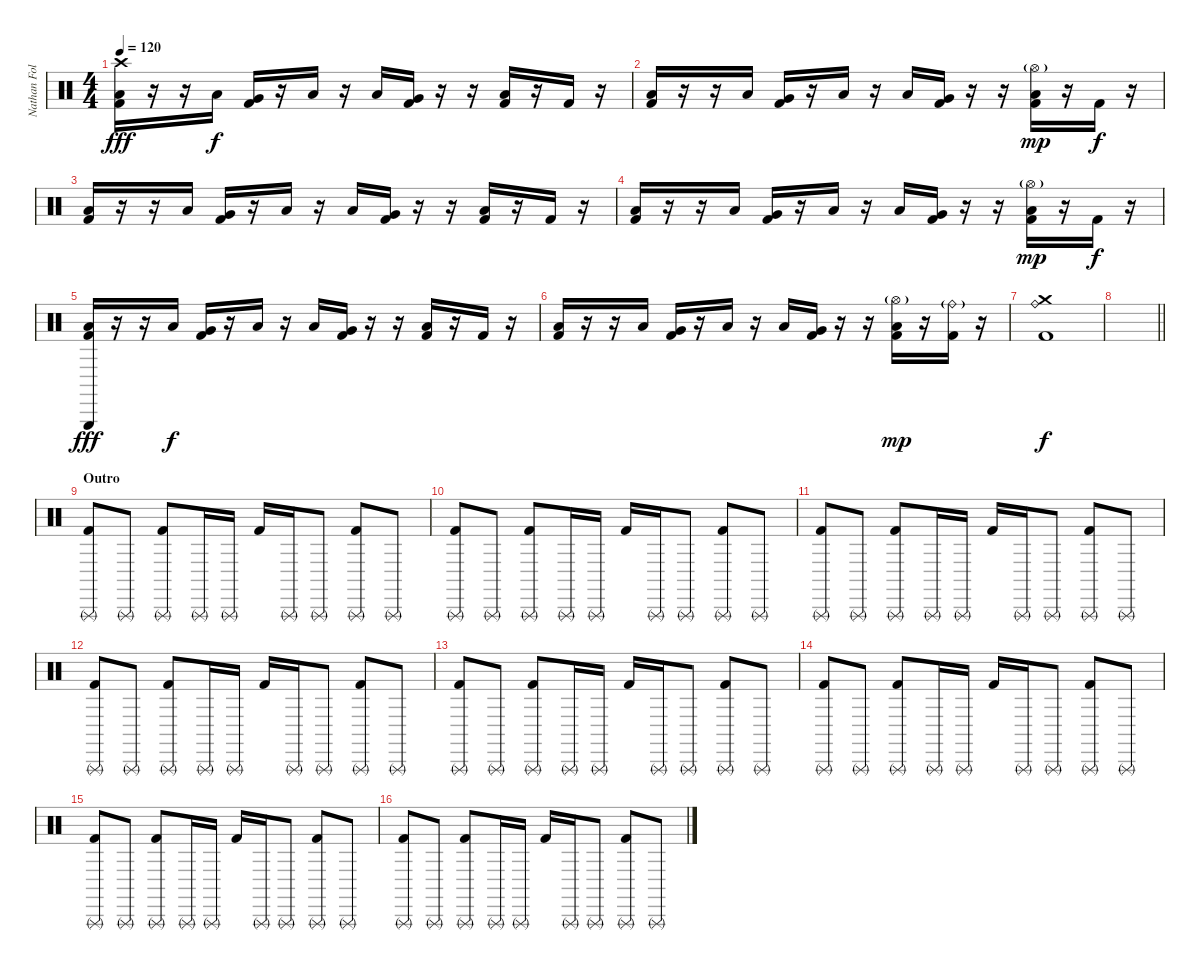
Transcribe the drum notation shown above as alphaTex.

\track ("Nathan Followill - Drums" "Nathan Fol") {instrument percussion}
\staff {score}
\articulation defaults
\ts (4 4)
\tempo 120
\clef neutral
\ks c
("Crash high (hit)" "Low Tom (hit)" "Kick (hit) 2").16{dy fff} r.16 r.16 "Low Tom (hit)".16{dy f} ("Very Low Tom (hit)" "Kick (hit) 2").16 r.16 "Low Tom (hit)".16 r.16 "Low Tom (hit)".16 ("Very Low Tom (hit)" "Kick (hit) 2").16 r.16 r.16 ("Low Tom (hit)" "Kick (hit) 2").16 r.16 "Kick (hit) 2".16 r.16 |
("Low Tom (hit)" "Kick (hit) 2").16 r.16 r.16 "Low Tom (hit)".16 ("Very Low Tom (hit)" "Kick (hit) 2").16 r.16 "Low Tom (hit)".16 r.16 "Low Tom (hit)".16 ("Very Low Tom (hit)" "Kick (hit) 2").16 r.16 r.16 ("Hi-Hat (open)"{g} "Low Tom (hit)" "Kick (hit) 2").16{dy mp} r.16 "Kick (hit) 2".16{dy f} r.16 |
("Low Tom (hit)" "Kick (hit) 2").16 r.16 r.16 "Low Tom (hit)".16 ("Very Low Tom (hit)" "Kick (hit) 2").16 r.16 "Low Tom (hit)".16 r.16 "Low Tom (hit)".16 ("Very Low Tom (hit)" "Kick (hit) 2").16 r.16 r.16 ("Low Tom (hit)" "Kick (hit) 2").16 r.16 "Kick (hit) 2".16 r.16 |
("Low Tom (hit)" "Kick (hit) 2").16 r.16 r.16 "Low Tom (hit)".16 ("Very Low Tom (hit)" "Kick (hit) 2").16 r.16 "Low Tom (hit)".16 r.16 "Low Tom (hit)".16 ("Very Low Tom (hit)" "Kick (hit) 2").16 r.16 r.16 ("Hi-Hat (open)"{g} "Low Tom (hit)" "Kick (hit) 2").16{dy mp} r.16 "Kick (hit) 2".16{dy f} r.16 |
("Triangle (hit)" "Low Tom (hit)" "Kick (hit) 2").16{dy fff} r.16 r.16 "Low Tom (hit)".16{dy f} ("Very Low Tom (hit)" "Kick (hit) 2").16 r.16 "Low Tom (hit)".16 r.16 "Low Tom (hit)".16 ("Very Low Tom (hit)" "Kick (hit) 2").16 r.16 r.16 ("Low Tom (hit)" "Kick (hit) 2").16 r.16 "Kick (hit) 2".16 r.16 |
("Low Tom (hit)" "Kick (hit) 2").16 r.16 r.16 "Low Tom (hit)".16 ("Very Low Tom (hit)" "Kick (hit) 2").16 r.16 "Low Tom (hit)".16 r.16 "Low Tom (hit)".16 ("Very Low Tom (hit)" "Kick (hit) 2").16 r.16 r.16 ("Hi-Hat (open)"{g} "Low Tom (hit)" "Kick (hit) 2").16{dy mp} r.16 ("Ride (bell)"{g} "Kick (hit) 2").16 r.16 |
("Ride (bell)" "Crash medium (hit)" "Kick (hit) 2").1{dy f} |
\barLineRight lightlight
|
\section ("" "Outro")
("Triangle (rnute)" "Kick (hit) 2").8 "Triangle (rnute)".8 ("Triangle (rnute)" "Kick (hit) 2").8 "Triangle (rnute)".16 "Triangle (rnute)".16 "Kick (hit) 2".16 "Triangle (rnute)".16 "Triangle (rnute)".8 ("Triangle (rnute)" "Kick (hit) 2").8 "Triangle (rnute)".8 |
("Triangle (rnute)" "Kick (hit) 2").8 "Triangle (rnute)".8 ("Triangle (rnute)" "Kick (hit) 2").8 "Triangle (rnute)".16 "Triangle (rnute)".16 "Kick (hit) 2".16 "Triangle (rnute)".16 "Triangle (rnute)".8 ("Triangle (rnute)" "Kick (hit) 2").8 "Triangle (rnute)".8 |
("Triangle (rnute)" "Kick (hit) 2").8 "Triangle (rnute)".8 ("Triangle (rnute)" "Kick (hit) 2").8 "Triangle (rnute)".16 "Triangle (rnute)".16 "Kick (hit) 2".16 "Triangle (rnute)".16 "Triangle (rnute)".8 ("Triangle (rnute)" "Kick (hit) 2").8 "Triangle (rnute)".8 |
("Triangle (rnute)" "Kick (hit) 2").8 "Triangle (rnute)".8 ("Triangle (rnute)" "Kick (hit) 2").8 "Triangle (rnute)".16 "Triangle (rnute)".16 "Kick (hit) 2".16 "Triangle (rnute)".16 "Triangle (rnute)".8 ("Triangle (rnute)" "Kick (hit) 2").8 "Triangle (rnute)".8 |
("Triangle (rnute)" "Kick (hit) 2").8 "Triangle (rnute)".8 ("Triangle (rnute)" "Kick (hit) 2").8 "Triangle (rnute)".16 "Triangle (rnute)".16 "Kick (hit) 2".16 "Triangle (rnute)".16 "Triangle (rnute)".8 ("Triangle (rnute)" "Kick (hit) 2").8 "Triangle (rnute)".8 |
("Triangle (rnute)" "Kick (hit) 2").8 "Triangle (rnute)".8 ("Triangle (rnute)" "Kick (hit) 2").8 "Triangle (rnute)".16 "Triangle (rnute)".16 "Kick (hit) 2".16 "Triangle (rnute)".16 "Triangle (rnute)".8 ("Triangle (rnute)" "Kick (hit) 2").8 "Triangle (rnute)".8 |
("Triangle (rnute)" "Kick (hit) 2").8 "Triangle (rnute)".8 ("Triangle (rnute)" "Kick (hit) 2").8 "Triangle (rnute)".16 "Triangle (rnute)".16 "Kick (hit) 2".16 "Triangle (rnute)".16 "Triangle (rnute)".8 ("Triangle (rnute)" "Kick (hit) 2").8 "Triangle (rnute)".8 |
("Triangle (rnute)" "Kick (hit) 2").8 "Triangle (rnute)".8 ("Triangle (rnute)" "Kick (hit) 2").8 "Triangle (rnute)".16 "Triangle (rnute)".16 "Kick (hit) 2".16 "Triangle (rnute)".16 "Triangle (rnute)".8 ("Triangle (rnute)" "Kick (hit) 2").8 "Triangle (rnute)".8
